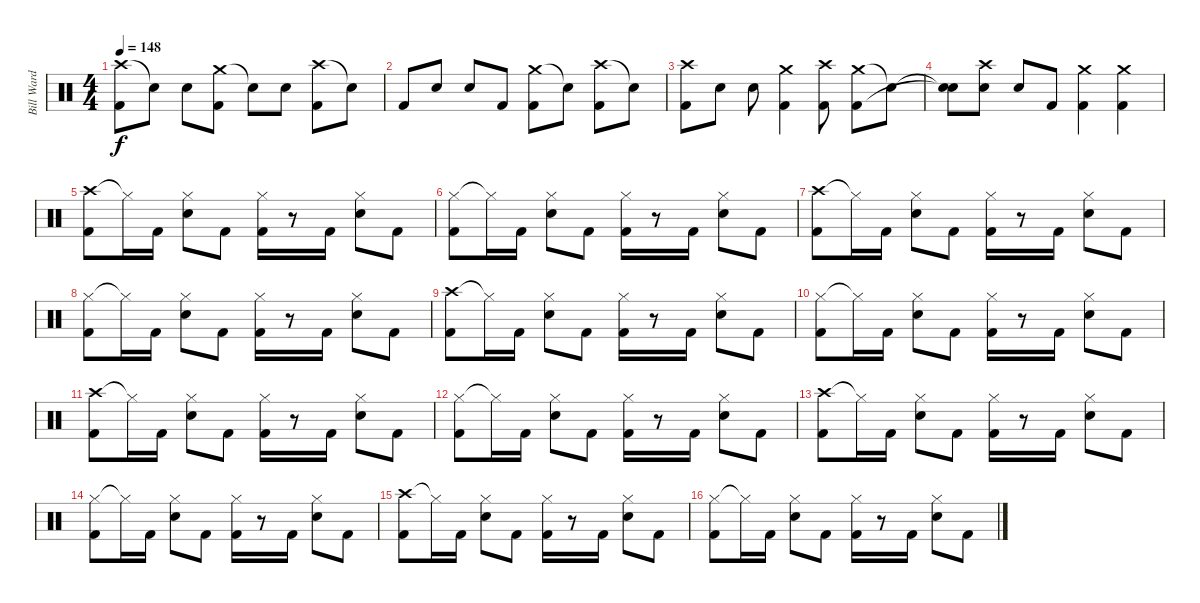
\track ("Bill Ward" "Bill Ward") {instrument percussion}
\staff {score}
\articulation defaults
\ts (4 4)
\tempo 148
\clef neutral
\ks aminor
("Crash high (hit)" "Kick (hit) 2").8{dy f} "Snare (hit)"{t}.8 "Snare (hit) 2".8 ("Crash medium (hit)" "Kick (hit) 2").8 "Snare (hit)"{t}.8 "Snare (hit) 2".8 ("Crash high (hit)" "Kick (hit) 2").8 "Snare (hit)"{t}.8 |
"Kick (hit) 2".8 "Snare (hit) 2".8 "Snare (hit) 2".8 "Kick (hit) 2".8 ("Crash medium (hit)" "Kick (hit) 2").8 "Snare (hit)"{t}.8 ("Crash high (hit)" "Kick (hit) 2").8 "Snare (hit)"{t}.8 |
("Crash high (hit)" "Kick (hit) 2").8 "Snare (hit) 2".8 "Snare (hit) 2".8 ("Crash medium (hit)" "Kick (hit) 2").4 ("Crash high (hit)" "Kick (hit) 2").8 ("Crash medium (hit)" "Kick (hit) 2").8 "Snare (hit)"{t}.8 |
("Snare (hit)"{t} "Snare (hit)"{t}).8 ("Crash high (hit)" "Snare (hit) 2").8 "Snare (hit) 2".8 "Kick (hit) 2".8 ("Crash medium (hit)" "Kick (hit) 2").4 ("Crash medium (hit)" "Kick (hit) 2").4 |
("Crash high (hit)" "Kick (hit) 2").8 "Hi-Hat (closed)"{t}.16 "Kick (hit) 2".16 ("Hi-Hat (closed)" "Snare (hit) 2").8 "Kick (hit) 2".8 ("Hi-Hat (closed)" "Kick (hit) 2").16 r.8 "Kick (hit) 2".16 ("Hi-Hat (closed)" "Snare (hit) 2").8 "Kick (hit) 2".8 |
("Hi-Hat (closed)" "Kick (hit) 2").8 "Hi-Hat (closed)"{t}.16 "Kick (hit) 2".16 ("Hi-Hat (closed)" "Snare (hit) 2").8 "Kick (hit) 2".8 ("Hi-Hat (closed)" "Kick (hit) 2").16 r.8 "Kick (hit) 2".16 ("Hi-Hat (closed)" "Snare (hit) 2").8 "Kick (hit) 2".8 |
("Crash high (hit)" "Kick (hit) 2").8 "Hi-Hat (closed)"{t}.16 "Kick (hit) 2".16 ("Hi-Hat (closed)" "Snare (hit) 2").8 "Kick (hit) 2".8 ("Hi-Hat (closed)" "Kick (hit) 2").16 r.8 "Kick (hit) 2".16 ("Hi-Hat (closed)" "Snare (hit) 2").8 "Kick (hit) 2".8 |
("Hi-Hat (closed)" "Kick (hit) 2").8 "Hi-Hat (closed)"{t}.16 "Kick (hit) 2".16 ("Hi-Hat (closed)" "Snare (hit) 2").8 "Kick (hit) 2".8 ("Hi-Hat (closed)" "Kick (hit) 2").16 r.8 "Kick (hit) 2".16 ("Hi-Hat (closed)" "Snare (hit) 2").8 "Kick (hit) 2".8 |
("Crash high (hit)" "Kick (hit) 2").8 "Hi-Hat (closed)"{t}.16 "Kick (hit) 2".16 ("Hi-Hat (closed)" "Snare (hit) 2").8 "Kick (hit) 2".8 ("Hi-Hat (closed)" "Kick (hit) 2").16 r.8 "Kick (hit) 2".16 ("Hi-Hat (closed)" "Snare (hit) 2").8 "Kick (hit) 2".8 |
("Hi-Hat (closed)" "Kick (hit) 2").8 "Hi-Hat (closed)"{t}.16 "Kick (hit) 2".16 ("Hi-Hat (closed)" "Snare (hit) 2").8 "Kick (hit) 2".8 ("Hi-Hat (closed)" "Kick (hit) 2").16 r.8 "Kick (hit) 2".16 ("Hi-Hat (closed)" "Snare (hit) 2").8 "Kick (hit) 2".8 |
("Crash high (hit)" "Kick (hit) 2").8 "Hi-Hat (closed)"{t}.16 "Kick (hit) 2".16 ("Hi-Hat (closed)" "Snare (hit) 2").8 "Kick (hit) 2".8 ("Hi-Hat (closed)" "Kick (hit) 2").16 r.8 "Kick (hit) 2".16 ("Hi-Hat (closed)" "Snare (hit) 2").8 "Kick (hit) 2".8 |
("Hi-Hat (closed)" "Kick (hit) 2").8 "Hi-Hat (closed)"{t}.16 "Kick (hit) 2".16 ("Hi-Hat (closed)" "Snare (hit) 2").8 "Kick (hit) 2".8 ("Hi-Hat (closed)" "Kick (hit) 2").16 r.8 "Kick (hit) 2".16 ("Hi-Hat (closed)" "Snare (hit) 2").8 "Kick (hit) 2".8 |
("Crash high (hit)" "Kick (hit) 2").8 "Hi-Hat (closed)"{t}.16 "Kick (hit) 2".16 ("Hi-Hat (closed)" "Snare (hit) 2").8 "Kick (hit) 2".8 ("Hi-Hat (closed)" "Kick (hit) 2").16 r.8 "Kick (hit) 2".16 ("Hi-Hat (closed)" "Snare (hit) 2").8 "Kick (hit) 2".8 |
("Hi-Hat (closed)" "Kick (hit) 2").8 "Hi-Hat (closed)"{t}.16 "Kick (hit) 2".16 ("Hi-Hat (closed)" "Snare (hit) 2").8 "Kick (hit) 2".8 ("Hi-Hat (closed)" "Kick (hit) 2").16 r.8 "Kick (hit) 2".16 ("Hi-Hat (closed)" "Snare (hit) 2").8 "Kick (hit) 2".8 |
("Crash high (hit)" "Kick (hit) 2").8 "Hi-Hat (closed)"{t}.16 "Kick (hit) 2".16 ("Hi-Hat (closed)" "Snare (hit) 2").8 "Kick (hit) 2".8 ("Hi-Hat (closed)" "Kick (hit) 2").16 r.8 "Kick (hit) 2".16 ("Hi-Hat (closed)" "Snare (hit) 2").8 "Kick (hit) 2".8 |
("Hi-Hat (closed)" "Kick (hit) 2").8 "Hi-Hat (closed)"{t}.16 "Kick (hit) 2".16 ("Hi-Hat (closed)" "Snare (hit) 2").8 "Kick (hit) 2".8 ("Hi-Hat (closed)" "Kick (hit) 2").16 r.8 "Kick (hit) 2".16 ("Hi-Hat (closed)" "Snare (hit) 2").8 "Kick (hit) 2".8
